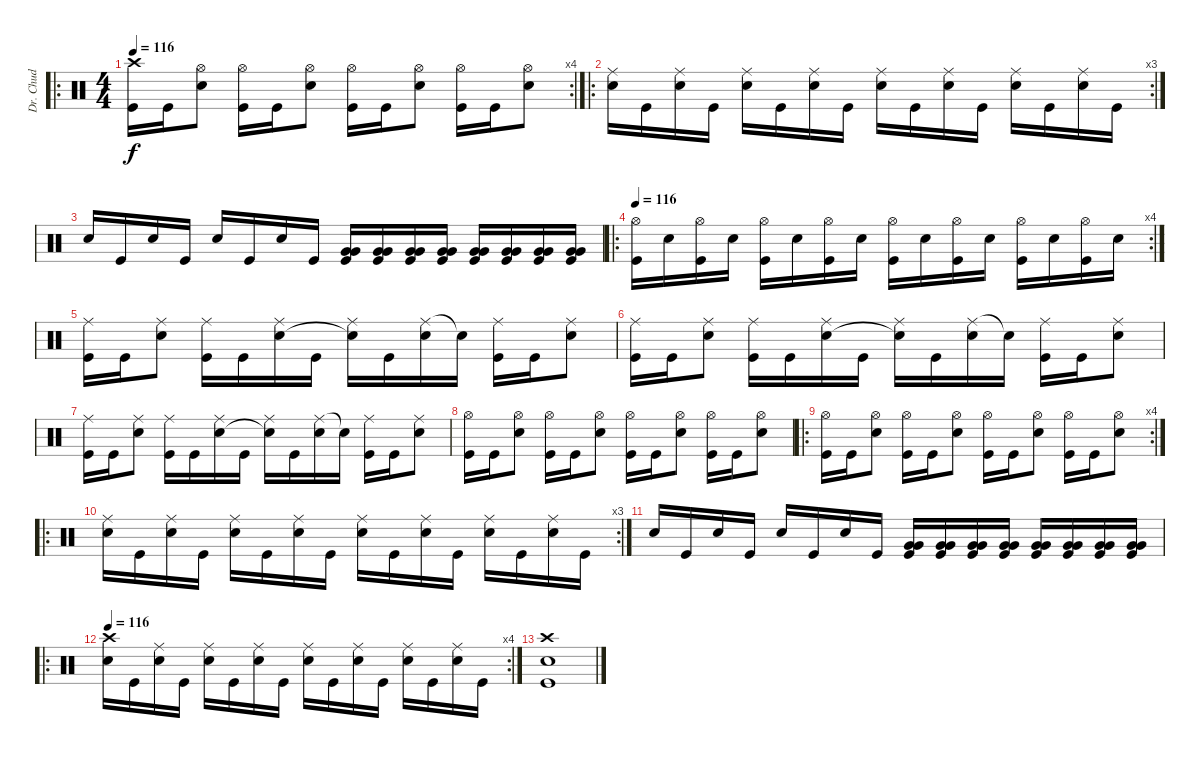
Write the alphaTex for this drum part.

\track ("Dr. Chud" "Dr. Chud") {instrument percussion}
\staff {score}
\articulation defaults
\ro
\rc 4
\ts (4 4)
\tempo 116
\clef neutral
\ks c
("Crash high (hit)" "Kick (hit)").16{dy f} "Kick (hit)".16 ("Hi-Hat (open)" "Snare (hit) 2").8 ("Hi-Hat (open)" "Kick (hit)").16 "Kick (hit)".16 ("Hi-Hat (open)" "Snare (hit) 2").8 ("Hi-Hat (open)" "Kick (hit)").16 "Kick (hit)".16 ("Hi-Hat (open)" "Snare (hit) 2").8 ("Hi-Hat (open)" "Kick (hit)").16 "Kick (hit)".16 ("Hi-Hat (open)" "Snare (hit) 2").8 |
\ro
\rc 3
("Ride (middle)" "Snare (hit) 2").16 "Kick (hit)".16 ("Ride (middle)" "Snare (hit) 2").16 "Kick (hit)".16 ("Ride (middle)" "Snare (hit) 2").16 "Kick (hit)".16 ("Ride (middle)" "Snare (hit) 2").16 "Kick (hit)".16 ("Ride (middle)" "Snare (hit) 2").16 "Kick (hit)".16 ("Ride (middle)" "Snare (hit) 2").16 "Kick (hit)".16 ("Ride (middle)" "Snare (hit) 2").16 "Kick (hit)".16 ("Ride (middle)" "Snare (hit) 2").16 "Kick (hit)".16 |
"Snare (hit) 2".16 "Kick (hit)".16 "Snare (hit) 2".16 "Kick (hit)".16 "Snare (hit) 2".16 "Kick (hit)".16 "Snare (hit) 2".16 "Kick (hit)".16 ("Very Low Tom (hit)" "Very Low Tom (hit)" "Kick (hit)").16 ("Very Low Tom (hit)" "Very Low Tom (hit)" "Kick (hit)").16 ("Very Low Tom (hit)" "Very Low Tom (hit)" "Kick (hit)").16 ("Very Low Tom (hit)" "Very Low Tom (hit)" "Kick (hit)").16 ("Very Low Tom (hit)" "Very Low Tom (hit)" "Kick (hit)").16 ("Very Low Tom (hit)" "Very Low Tom (hit)" "Kick (hit)").16 ("Very Low Tom (hit)" "Very Low Tom (hit)" "Kick (hit)").16 ("Very Low Tom (hit)" "Very Low Tom (hit)" "Kick (hit)").16 |
\ro
\rc 4
\tempo 116
("Hi-Hat (open)" "Kick (hit)").16 "Snare (hit) 2".16 ("Hi-Hat (open)" "Kick (hit)").16 "Snare (hit) 2".16 ("Hi-Hat (open)" "Kick (hit)").16 "Snare (hit) 2".16 ("Hi-Hat (open)" "Kick (hit)").16 "Snare (hit) 2".16 ("Hi-Hat (open)" "Kick (hit)").16 "Snare (hit) 2".16 ("Hi-Hat (open)" "Kick (hit)").16 "Snare (hit) 2".16 ("Hi-Hat (open)" "Kick (hit)").16 "Snare (hit) 2".16 ("Hi-Hat (open)" "Kick (hit)").16 "Snare (hit) 2".16 |
("Ride (middle)" "Kick (hit)").16 "Kick (hit)".16 ("Ride (middle)" "Snare (hit) 2").8 ("Ride (middle)" "Kick (hit)").16 "Kick (hit)".16 ("Ride (middle)" "Snare (hit) 2").16 "Kick (hit)".16 ("Ride (middle)" "Snare (hit)"{t}).16 "Kick (hit)".16 ("Ride (middle)" "Snare (hit) 2").16 "Snare (hit)"{t}.16 ("Ride (middle)" "Kick (hit)").16 "Kick (hit)".16 ("Ride (middle)" "Snare (hit) 2").8 |
("Ride (middle)" "Kick (hit)").16 "Kick (hit)".16 ("Ride (middle)" "Snare (hit) 2").8 ("Ride (middle)" "Kick (hit)").16 "Kick (hit)".16 ("Ride (middle)" "Snare (hit) 2").16 "Kick (hit)".16 ("Ride (middle)" "Snare (hit)"{t}).16 "Kick (hit)".16 ("Ride (middle)" "Snare (hit) 2").16 "Snare (hit)"{t}.16 ("Ride (middle)" "Kick (hit)").16 "Kick (hit)".16 ("Ride (middle)" "Snare (hit) 2").8 |
("Ride (middle)" "Kick (hit)").16 "Kick (hit)".16 ("Ride (middle)" "Snare (hit) 2").8 ("Ride (middle)" "Kick (hit)").16 "Kick (hit)".16 ("Ride (middle)" "Snare (hit) 2").16 "Kick (hit)".16 ("Ride (middle)" "Snare (hit)"{t}).16 "Kick (hit)".16 ("Ride (middle)" "Snare (hit) 2").16 "Snare (hit)"{t}.16 ("Ride (middle)" "Kick (hit)").16 "Kick (hit)".16 ("Ride (middle)" "Snare (hit) 2").8 |
("Hi-Hat (open)" "Kick (hit)").16 "Kick (hit)".16 ("Hi-Hat (open)" "Snare (hit) 2").8 ("Hi-Hat (open)" "Kick (hit)").16 "Kick (hit)".16 ("Hi-Hat (open)" "Snare (hit) 2").8 ("Hi-Hat (open)" "Kick (hit)").16 "Kick (hit)".16 ("Hi-Hat (open)" "Snare (hit) 2").8 ("Hi-Hat (open)" "Kick (hit)").16 "Kick (hit)".16 ("Hi-Hat (open)" "Snare (hit) 2").8 |
\ro
\rc 4
("Hi-Hat (open)" "Kick (hit)").16 "Kick (hit)".16 ("Hi-Hat (open)" "Snare (hit) 2").8 ("Hi-Hat (open)" "Kick (hit)").16 "Kick (hit)".16 ("Hi-Hat (open)" "Snare (hit) 2").8 ("Hi-Hat (open)" "Kick (hit)").16 "Kick (hit)".16 ("Hi-Hat (open)" "Snare (hit) 2").8 ("Hi-Hat (open)" "Kick (hit)").16 "Kick (hit)".16 ("Hi-Hat (open)" "Snare (hit) 2").8 |
\ro
\rc 3
("Ride (middle)" "Snare (hit) 2").16 "Kick (hit)".16 ("Ride (middle)" "Snare (hit) 2").16 "Kick (hit)".16 ("Ride (middle)" "Snare (hit) 2").16 "Kick (hit)".16 ("Ride (middle)" "Snare (hit) 2").16 "Kick (hit)".16 ("Ride (middle)" "Snare (hit) 2").16 "Kick (hit)".16 ("Ride (middle)" "Snare (hit) 2").16 "Kick (hit)".16 ("Ride (middle)" "Snare (hit) 2").16 "Kick (hit)".16 ("Ride (middle)" "Snare (hit) 2").16 "Kick (hit)".16 |
"Snare (hit) 2".16 "Kick (hit)".16 "Snare (hit) 2".16 "Kick (hit)".16 "Snare (hit) 2".16 "Kick (hit)".16 "Snare (hit) 2".16 "Kick (hit)".16 ("Very Low Tom (hit)" "Very Low Tom (hit)" "Kick (hit)").16 ("Very Low Tom (hit)" "Very Low Tom (hit)" "Kick (hit)").16 ("Very Low Tom (hit)" "Very Low Tom (hit)" "Kick (hit)").16 ("Very Low Tom (hit)" "Very Low Tom (hit)" "Kick (hit)").16 ("Very Low Tom (hit)" "Very Low Tom (hit)" "Kick (hit)").16 ("Very Low Tom (hit)" "Very Low Tom (hit)" "Kick (hit)").16 ("Very Low Tom (hit)" "Very Low Tom (hit)" "Kick (hit)").16 ("Very Low Tom (hit)" "Very Low Tom (hit)" "Kick (hit)").16 |
\ro
\rc 4
\tempo 116
("Crash high (hit)" "Snare (hit) 2").16 "Kick (hit)".16 ("Ride (middle)" "Snare (hit) 2").16 "Kick (hit)".16 ("Ride (middle)" "Snare (hit) 2").16 "Kick (hit)".16 ("Ride (middle)" "Snare (hit) 2").16 "Kick (hit)".16 ("Ride (middle)" "Snare (hit) 2").16 "Kick (hit)".16 ("Ride (middle)" "Snare (hit) 2").16 "Kick (hit)".16 ("Ride (middle)" "Snare (hit) 2").16 "Kick (hit)".16 ("Ride (middle)" "Snare (hit) 2").16 "Kick (hit)".16 |
("Crash high (hit)" "Snare (hit) 2" "Kick (hit)").1
